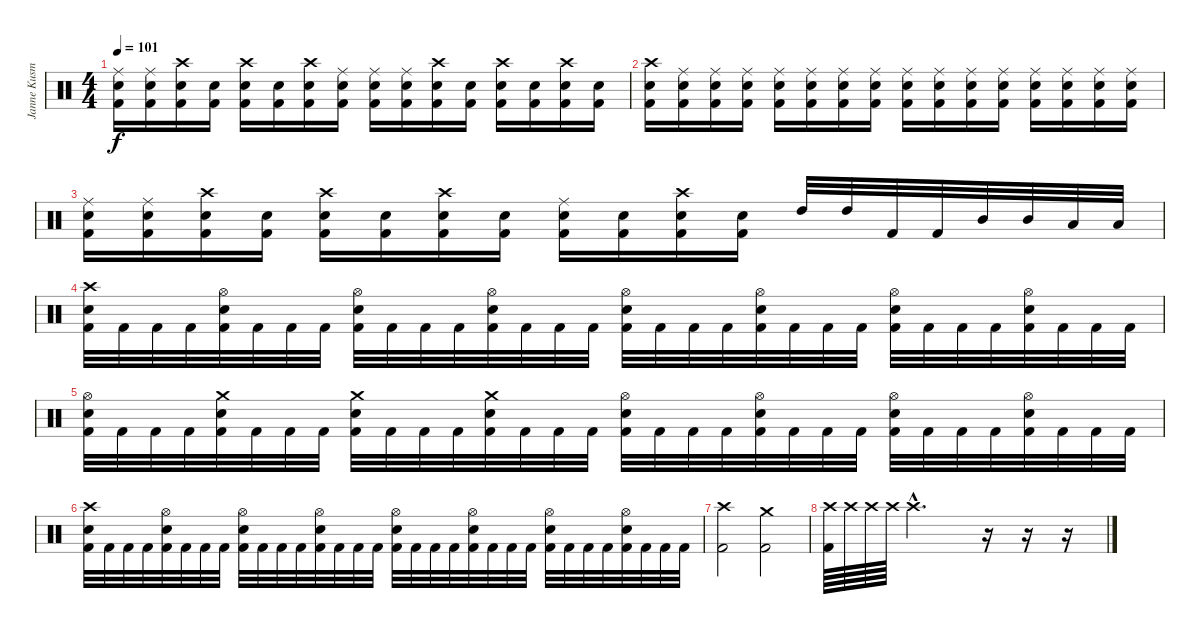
\track ("Janne Kusmin" "Janne Kusm") {instrument percussion}
\staff {score}
\articulation defaults
\ts (4 4)
\tempo 101
\clef neutral
\ks c
("Ride (middle)" "Snare (hit) 2" "Kick (hit) 2").16{dy f} ("Ride (middle)" "Snare (hit) 2" "Kick (hit) 2").16 ("Crash high (hit)" "Snare (hit) 2" "Kick (hit) 2").16 ("Snare (hit) 2" "Kick (hit) 2").16 ("Crash high (hit)" "Snare (hit) 2" "Kick (hit) 2").16 ("Snare (hit) 2" "Kick (hit) 2").16 ("Crash high (hit)" "Snare (hit) 2" "Kick (hit) 2").16 ("Ride (middle)" "Snare (hit) 2" "Kick (hit) 2").16 ("Ride (middle)" "Snare (hit) 2" "Kick (hit) 2").16 ("Ride (middle)" "Snare (hit) 2" "Kick (hit) 2").16 ("Crash high (hit)" "Snare (hit) 2" "Kick (hit) 2").16 ("Snare (hit) 2" "Kick (hit) 2").16 ("Crash high (hit)" "Snare (hit) 2" "Kick (hit) 2").16 ("Snare (hit) 2" "Kick (hit) 2").16 ("Crash high (hit)" "Snare (hit) 2" "Kick (hit) 2").16 ("Snare (hit) 2" "Kick (hit) 2").16 |
("Crash high (hit)" "Snare (hit) 2" "Kick (hit) 2").16 ("Ride (middle)" "Snare (hit) 2" "Kick (hit) 2").16 ("Ride (middle)" "Snare (hit) 2" "Kick (hit) 2").16 ("Ride (middle)" "Snare (hit) 2" "Kick (hit) 2").16 ("Ride (middle)" "Snare (hit) 2" "Kick (hit) 2").16 ("Ride (middle)" "Snare (hit) 2" "Kick (hit) 2").16 ("Ride (middle)" "Snare (hit) 2" "Kick (hit) 2").16 ("Ride (middle)" "Snare (hit) 2" "Kick (hit) 2").16 ("Ride (middle)" "Snare (hit) 2" "Kick (hit) 2").16 ("Ride (middle)" "Snare (hit) 2" "Kick (hit) 2").16 ("Ride (middle)" "Snare (hit) 2" "Kick (hit) 2").16 ("Ride (middle)" "Snare (hit) 2" "Kick (hit) 2").16 ("Ride (middle)" "Snare (hit) 2" "Kick (hit) 2").16 ("Ride (middle)" "Snare (hit) 2" "Kick (hit) 2").16 ("Ride (middle)" "Snare (hit) 2" "Kick (hit) 2").16 ("Ride (middle)" "Snare (hit) 2" "Kick (hit) 2").16 |
("Ride (middle)" "Snare (hit) 2" "Kick (hit) 2").16 ("Ride (middle)" "Snare (hit) 2" "Kick (hit) 2").16 ("Crash high (hit)" "Snare (hit) 2" "Kick (hit) 2").16 ("Snare (hit) 2" "Kick (hit) 2").16 ("Crash high (hit)" "Snare (hit) 2" "Kick (hit) 2").16 ("Snare (hit) 2" "Kick (hit) 2").16 ("Crash high (hit)" "Snare (hit) 2" "Kick (hit) 2").16 ("Snare (hit) 2" "Kick (hit) 2").16 ("Ride (middle)" "Snare (hit) 2" "Kick (hit) 2").16 ("Snare (hit) 2" "Kick (hit) 2").16 ("Crash high (hit)" "Snare (hit) 2" "Kick (hit) 2").16 ("Snare (hit) 2" "Kick (hit) 2").16 "High Tom (hit)".32 "High Tom (hit)".32 "Kick (hit) 2".32 "Kick (hit) 2".32 "Mid Tom (hit)".32 "Mid Tom (hit)".32 "Low Tom (hit)".32 "Low Tom (hit)".32 |
("Crash high (hit)" "Snare (hit) 2" "Kick (hit) 2").32 "Kick (hit) 2".32 "Kick (hit) 2".32 "Kick (hit) 2".32 ("Hi-Hat (open)" "Snare (hit) 2" "Kick (hit) 2").32 "Kick (hit) 2".32 "Kick (hit) 2".32 "Kick (hit) 2".32 ("Hi-Hat (open)" "Snare (hit) 2" "Kick (hit) 2").32 "Kick (hit) 2".32 "Kick (hit) 2".32 "Kick (hit) 2".32 ("Hi-Hat (open)" "Snare (hit) 2" "Kick (hit) 2").32 "Kick (hit) 2".32 "Kick (hit) 2".32 "Kick (hit) 2".32 ("Hi-Hat (open)" "Snare (hit) 2" "Kick (hit) 2").32 "Kick (hit) 2".32 "Kick (hit) 2".32 "Kick (hit) 2".32 ("Hi-Hat (open)" "Snare (hit) 2" "Kick (hit) 2").32 "Kick (hit) 2".32 "Kick (hit) 2".32 "Kick (hit) 2".32 ("Hi-Hat (open)" "Snare (hit) 2" "Kick (hit) 2").32 "Kick (hit) 2".32 "Kick (hit) 2".32 "Kick (hit) 2".32 ("Hi-Hat (open)" "Snare (hit) 2" "Kick (hit) 2").32 "Kick (hit) 2".32 "Kick (hit) 2".32 "Kick (hit) 2".32 |
("Hi-Hat (open)" "Snare (hit) 2" "Kick (hit) 2").32 "Kick (hit) 2".32 "Kick (hit) 2".32 "Kick (hit) 2".32 ("Crash medium (hit)" "Snare (hit) 2" "Kick (hit) 2").32 "Kick (hit) 2".32 "Kick (hit) 2".32 "Kick (hit) 2".32 ("Crash medium (hit)" "Snare (hit) 2" "Kick (hit) 2").32 "Kick (hit) 2".32 "Kick (hit) 2".32 "Kick (hit) 2".32 ("Crash medium (hit)" "Snare (hit) 2" "Kick (hit) 2").32 "Kick (hit) 2".32 "Kick (hit) 2".32 "Kick (hit) 2".32 ("Hi-Hat (open)" "Snare (hit) 2" "Kick (hit) 2").32 "Kick (hit) 2".32 "Kick (hit) 2".32 "Kick (hit) 2".32 ("Hi-Hat (open)" "Snare (hit) 2" "Kick (hit) 2").32 "Kick (hit) 2".32 "Kick (hit) 2".32 "Kick (hit) 2".32 ("Hi-Hat (open)" "Snare (hit) 2" "Kick (hit) 2").32 "Kick (hit) 2".32 "Kick (hit) 2".32 "Kick (hit) 2".32 ("Hi-Hat (open)" "Snare (hit) 2" "Kick (hit) 2").32 "Kick (hit) 2".32 "Kick (hit) 2".32 "Kick (hit) 2".32 |
("Crash high (hit)" "Snare (hit) 2" "Kick (hit) 2").32 "Kick (hit) 2".32 "Kick (hit) 2".32 "Kick (hit) 2".32 ("Hi-Hat (open)" "Snare (hit) 2" "Kick (hit) 2").32 "Kick (hit) 2".32 "Kick (hit) 2".32 "Kick (hit) 2".32 ("Hi-Hat (open)" "Snare (hit) 2" "Kick (hit) 2").32 "Kick (hit) 2".32 "Kick (hit) 2".32 "Kick (hit) 2".32 ("Hi-Hat (open)" "Snare (hit) 2" "Kick (hit) 2").32 "Kick (hit) 2".32 "Kick (hit) 2".32 "Kick (hit) 2".32 ("Hi-Hat (open)" "Snare (hit) 2" "Kick (hit) 2").32 "Kick (hit) 2".32 "Kick (hit) 2".32 "Kick (hit) 2".32 ("Hi-Hat (open)" "Snare (hit) 2" "Kick (hit) 2").32 "Kick (hit) 2".32 "Kick (hit) 2".32 "Kick (hit) 2".32 ("Hi-Hat (open)" "Snare (hit) 2" "Kick (hit) 2").32 "Kick (hit) 2".32 "Kick (hit) 2".32 "Kick (hit) 2".32 ("Hi-Hat (open)" "Snare (hit) 2" "Kick (hit) 2").32 "Kick (hit) 2".32 "Kick (hit) 2".32 "Kick (hit) 2".32 |
("Crash high (hit)" "Kick (hit) 2").2 ("Crash medium (hit)" "Kick (hit) 2").2 |
("Crash high (hit)" "Kick (hit) 2").64 "Crash high (hit)".64 "Crash high (hit)".64 "Crash high (hit)".64 "Crash high (hit)"{hac}.2{d} r.16 r.16 r.16
